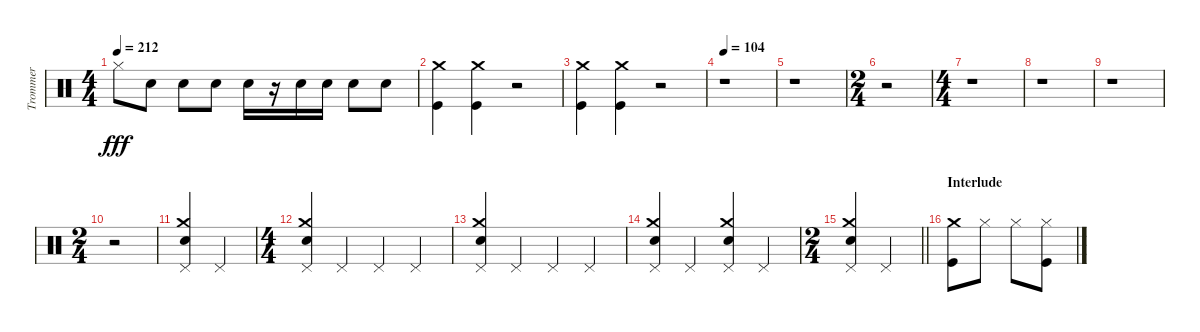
\track ("Trommer" "Trommer") {instrument percussion}
\staff {score}
\articulation defaults
\ts (4 4)
\tempo 212
\clef neutral
\ks c "Hi-Hat (closed)".8{dy fff} "Snare (hit) 2".8 "Snare (hit) 2".8 "Snare (hit) 2".8 "Snare (hit) 2".16
r.16 "Snare (hit) 2".16 "Snare (hit) 2".16 "Snare (hit) 2".8 "Snare (hit) 2".8 |
("Kick (hit)" "Crash medium (hit)").4 ("Kick (hit)" "Crash medium (hit)").4 r.2 |
("Crash medium (hit)" "Kick (hit)").4 ("Kick (hit)" "Crash medium (hit)").4 r.2 |
\tempo 104
r.1 |
r.1 |
\ts (2 4)
r.2 |
\ts (4 4)
r.1 |
r.1 |
r.1 |
\ts (2 4)
r.2 |
("Crash medium (hit)" "Pedal Hi-Hat (hit)" "Snare (hit) 2").4 "Pedal Hi-Hat (hit)".4 |
\ts (4 4)
("Pedal Hi-Hat (hit)" "Crash medium (hit)" "Snare (hit) 2").4 "Pedal Hi-Hat (hit)".4 "Pedal Hi-Hat (hit)".4 "Pedal Hi-Hat (hit)".4 |
("Pedal Hi-Hat (hit)" "Crash medium (hit)" "Snare (hit) 2").4 "Pedal Hi-Hat (hit)".4 "Pedal Hi-Hat (hit)".4 "Pedal Hi-Hat (hit)".4 |
("Crash medium (hit)" "Snare (hit) 2" "Pedal Hi-Hat (hit)").4 "Pedal Hi-Hat (hit)".4 ("Pedal Hi-Hat (hit)" "Snare (hit) 2" "Crash medium (hit)").4 "Pedal Hi-Hat (hit)".4 |
\ts (2 4)
\barLineRight lightlight
("Crash medium (hit)" "Pedal Hi-Hat (hit)" "Snare (hit) 2").4 "Pedal Hi-Hat (hit)".4 |
\section ("" "Interlude")
("Kick (hit)" "Crash medium (hit)").8 "Hi-Hat (closed)".8 "Hi-Hat (closed)".8 ("Kick (hit)" "Hi-Hat (closed)").8
